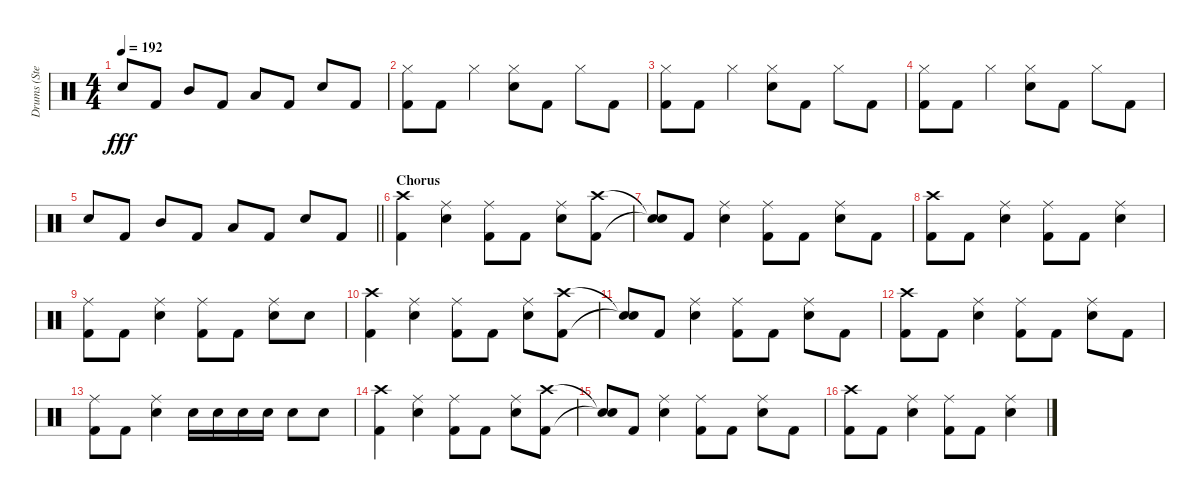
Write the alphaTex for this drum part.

\track ("Drums (Stevo32)" "Drums (Ste") {instrument percussion}
\staff {score}
\articulation defaults
\ts (4 4)
\tempo 192
\clef neutral
\ks c "Electric Snare (hit)".8{dy fff} "Kick (hit) 2".8 "Mid Tom (hit)".8 "Kick (hit) 2".8 "Low Tom (hit)".8 "Kick (hit) 2".8 "Electric Snare (hit)".8 "Kick (hit) 2".8
|
("Hi-Hat (closed)" "Kick (hit) 2").8 "Kick (hit) 2".8 "Hi-Hat (closed)".4 ("Hi-Hat (closed)" "Electric Snare (hit)").8 "Kick (hit) 2".8 "Hi-Hat (closed)".8 "Kick (hit) 2".8 |
("Hi-Hat (closed)" "Kick (hit) 2").8 "Kick (hit) 2".8 "Hi-Hat (closed)".4 ("Hi-Hat (closed)" "Electric Snare (hit)").8 "Kick (hit) 2".8 "Hi-Hat (closed)".8 "Kick (hit) 2".8 |
("Hi-Hat (closed)" "Kick (hit) 2").8 "Kick (hit) 2".8 "Hi-Hat (closed)".4 ("Hi-Hat (closed)" "Electric Snare (hit)").8 "Kick (hit) 2".8 "Hi-Hat (closed)".8 "Kick (hit) 2".8 |
\barLineRight lightlight "Electric Snare (hit)".8 "Kick (hit) 2".8 "Mid Tom (hit)".8 "Kick (hit) 2".8 "Low Tom (hit)".8 "Kick (hit) 2".8 "Electric Snare (hit)".8 "Kick (hit) 2".8
|
\section ("" "Chorus")
("Crash high (hit)" "Kick (hit) 2").4 ("Ride (middle)" "Electric Snare (hit)").4 ("Ride (middle)" "Kick (hit) 2").8 "Kick (hit) 2".8 ("Ride (middle)" "Electric Snare (hit)").8 ("Crash high (hit)" "Kick (hit) 2").8 |
("Snare (hit)"{t} "Snare (hit)"{t}).8 "Kick (hit) 2".8 ("Ride (middle)" "Electric Snare (hit)").4 ("Ride (middle)" "Kick (hit) 2").8 "Kick (hit) 2".8 ("Ride (middle)" "Electric Snare (hit)").8 "Kick (hit) 2".8 |
("Crash high (hit)" "Kick (hit) 2").8 "Kick (hit) 2".8 ("Ride (middle)" "Electric Snare (hit)").4 ("Ride (middle)" "Kick (hit) 2").8 "Kick (hit) 2".8 ("Ride (middle)" "Electric Snare (hit)").4 |
("Ride (middle)" "Kick (hit) 2").8 "Kick (hit) 2".8 ("Ride (middle)" "Electric Snare (hit)").4 ("Ride (middle)" "Kick (hit) 2").8 "Kick (hit) 2".8 ("Ride (middle)" "Electric Snare (hit)").8 "Electric Snare (hit)".8 |
("Crash high (hit)" "Kick (hit) 2").4 ("Ride (middle)" "Electric Snare (hit)").4 ("Ride (middle)" "Kick (hit) 2").8 "Kick (hit) 2".8 ("Ride (middle)" "Electric Snare (hit)").8 ("Crash high (hit)" "Kick (hit) 2").8 |
("Snare (hit)"{t} "Snare (hit)"{t}).8 "Kick (hit) 2".8 ("Ride (middle)" "Electric Snare (hit)").4 ("Ride (middle)" "Kick (hit) 2").8 "Kick (hit) 2".8 ("Ride (middle)" "Electric Snare (hit)").8 "Kick (hit) 2".8 |
("Crash high (hit)" "Kick (hit) 2").8 "Kick (hit) 2".8 ("Ride (middle)" "Electric Snare (hit)").4 ("Ride (middle)" "Kick (hit) 2").8 "Kick (hit) 2".8 ("Ride (middle)" "Electric Snare (hit)").8 "Kick (hit) 2".8 |
("Ride (middle)" "Kick (hit) 2").8 "Kick (hit) 2".8 ("Ride (middle)" "Electric Snare (hit)").4 "Electric Snare (hit)".16 "Electric Snare (hit)".16 "Electric Snare (hit)".16 "Electric Snare (hit)".16 "Electric Snare (hit)".8 "Electric Snare (hit)".8 |
("Crash high (hit)" "Kick (hit) 2").4 ("Ride (middle)" "Electric Snare (hit)").4 ("Ride (middle)" "Kick (hit) 2").8 "Kick (hit) 2".8 ("Ride (middle)" "Electric Snare (hit)").8 ("Crash high (hit)" "Kick (hit) 2").8 |
("Snare (hit)"{t} "Snare (hit)"{t}).8 "Kick (hit) 2".8 ("Ride (middle)" "Electric Snare (hit)").4 ("Ride (middle)" "Kick (hit) 2").8 "Kick (hit) 2".8 ("Ride (middle)" "Electric Snare (hit)").8 "Kick (hit) 2".8 |
("Crash high (hit)" "Kick (hit) 2").8 "Kick (hit) 2".8 ("Ride (middle)" "Electric Snare (hit)").4 ("Ride (middle)" "Kick (hit) 2").8 "Kick (hit) 2".8 ("Ride (middle)" "Electric Snare (hit)").4
